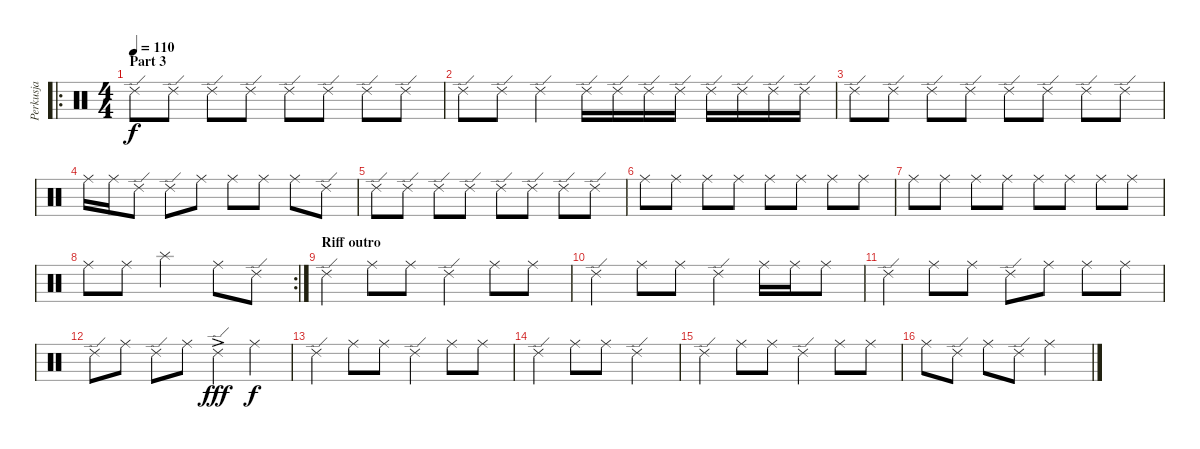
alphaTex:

\track ("Perkusja" "Perkusja") {instrument percussion}
\staff {score}
\articulation defaults
\ro
\ts (4 4)
\section ("" "Part 3")
\tempo 110
\clef neutral
\ks c "Ride (edge) 2".8{dy f} "Ride (edge) 2".8 "Ride (edge) 2".8 "Ride (edge) 2".8 "Ride (edge) 2".8 "Ride (edge) 2".8 "Ride (edge) 2".8 "Ride (edge) 2".8
|
"Ride (edge) 2".8 "Ride (edge) 2".8 "Ride (edge) 2".4 "Ride (edge) 2".16 "Ride (edge) 2".16 "Ride (edge) 2".16 "Ride (edge) 2".16 "Ride (edge) 2".16 "Ride (edge) 2".16 "Ride (edge) 2".16 "Ride (edge) 2".16 |
"Ride (edge) 2".8 "Ride (edge) 2".8 "Ride (edge) 2".8 "Ride (edge) 2".8 "Ride (edge) 2".8 "Ride (edge) 2".8 "Ride (edge) 2".8 "Ride (edge) 2".8 |
"Ride (middle)".16 "Ride (middle)".16 "Ride (edge) 2".8 "Ride (edge) 2".8 "Ride (middle)".8 "Ride (middle)".8 "Ride (middle)".8 "Ride (middle)".8 "Ride (edge) 2".8 |
"Ride (edge) 2".8 "Ride (edge) 2".8 "Ride (edge) 2".8 "Ride (edge) 2".8 "Ride (edge) 2".8 "Ride (edge) 2".8 "Ride (edge) 2".8 "Ride (edge) 2".8 |
"Ride (middle)".8 "Ride (middle)".8 "Ride (middle)".8 "Ride (middle)".8 "Ride (middle)".8 "Ride (middle)".8 "Ride (middle)".8 "Ride (middle)".8 |
"Ride (middle)".8 "Ride (middle)".8 "Ride (middle)".8 "Ride (middle)".8 "Ride (middle)".8 "Ride (middle)".8 "Ride (middle)".8 "Ride (middle)".8 |
\rc 2 "Ride (middle)".8 "Ride (middle)".8 "Splash (hit)".2 "Ride (middle)".8 "Ride (edge) 2".8
|
\section ("" "Riff outro")
"Ride (edge) 2".4 "Ride (middle)".8 "Ride (middle)".8 "Ride (edge) 2".4 "Ride (middle)".8 "Ride (middle)".8 |
"Ride (edge) 2".4 "Ride (middle)".8 "Ride (middle)".8 "Ride (edge) 2".4 "Ride (middle)".16 "Ride (middle)".16 "Ride (middle)".8 |
"Ride (edge) 2".4 "Ride (middle)".8 "Ride (middle)".8 "Ride (edge) 2".8 "Ride (middle)".8 "Ride (middle)".8 "Ride (middle)".8 |
"Ride (edge) 2".8 "Ride (middle)".8 "Ride (edge) 2".8 "Ride (middle)".8 "Ride (edge) 2"{ac}.4{dy fff} "Ride (middle)".4{dy f} |
"Ride (edge) 2".4 "Ride (middle)".8 "Ride (middle)".8 "Ride (edge) 2".4 "Ride (middle)".8 "Ride (middle)".8 |
"Ride (edge) 2".4 "Ride (middle)".8 "Ride (middle)".8 "Ride (edge) 2".2 |
"Ride (edge) 2".4 "Ride (middle)".8 "Ride (middle)".8 "Ride (edge) 2".4 "Ride (middle)".8 "Ride (middle)".8 |
"Ride (middle)".8 "Ride (edge) 2".8 "Ride (middle)".8 "Ride (edge) 2".8 "Ride (middle)".2
